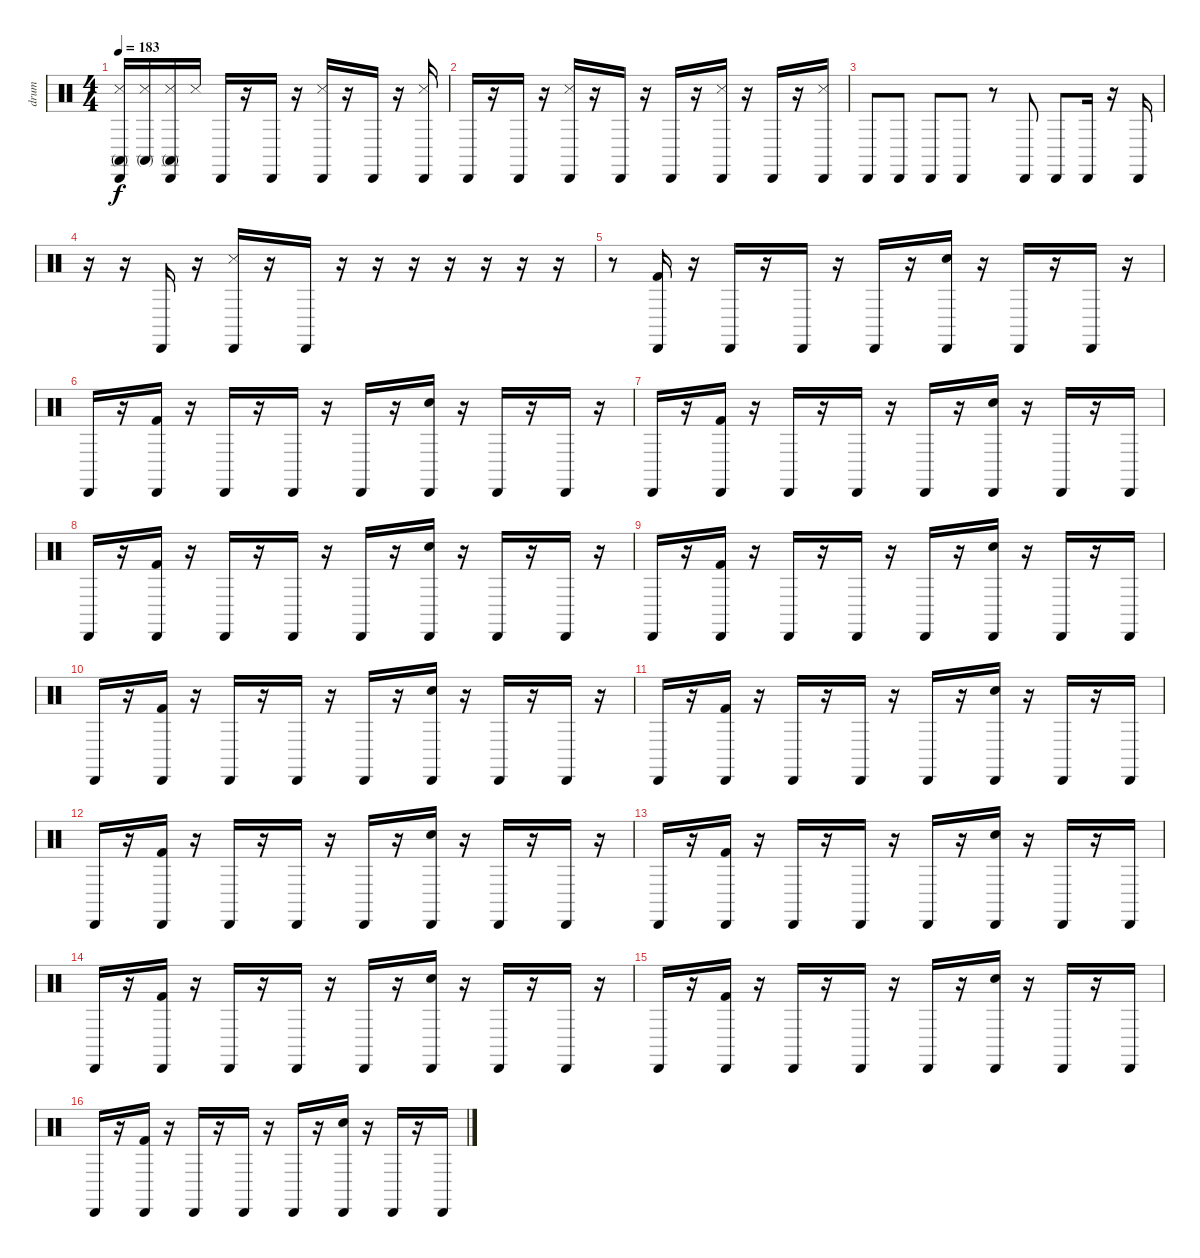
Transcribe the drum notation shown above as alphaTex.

\track ("drum" "drum") {instrument percussion}
\staff {score}
\articulation defaults
\ts (4 4)
\tempo 183
\clef neutral
\ks c
("Cabasa (hit)" "Conga high (mute)" "Snare (side stick) 3").16{dy f} ("Conga high (mute)" "Snare (side stick) 3").16 ("Cabasa (hit)" "Conga high (mute)" "Snare (side stick) 3").16 "Snare (side stick) 3".16 "Cabasa (hit)".16 r.16 "Cabasa (hit)".16 r.16 ("Cabasa (hit)" "Snare (side stick) 3").16 r.16 "Cabasa (hit)".16 r.16 ("Cabasa (hit)" "Snare (side stick) 3").16 |
"Cabasa (hit)".16 r.16 "Cabasa (hit)".16 r.16 ("Cabasa (hit)" "Snare (side stick) 3").16 r.16 "Cabasa (hit)".16 r.16 "Cabasa (hit)".16 r.16 ("Cabasa (hit)" "Snare (side stick) 3").16 r.16 "Cabasa (hit)".16 r.16 ("Cabasa (hit)" "Snare (side stick) 3").16 |
"Cabasa (hit)".8 "Cabasa (hit)".8 "Cabasa (hit)".8 "Cabasa (hit)".8 r.8 "Cabasa (hit)".8 "Cabasa (hit)".8 "Cabasa (hit)".16 r.16 "Cabasa (hit)".16 |
r.16 r.16 "Cabasa (hit)".16 r.16 ("Cabasa (hit)" "Snare (side stick) 3").16 r.16 "Cabasa (hit)".16 r.16 r.16 r.16 r.16 r.16 r.16 r.16 |
r.8 ("Cabasa (hit)" "Kick (hit) 2").16 r.16 "Cabasa (hit)".16 r.16 "Cabasa (hit)".16 r.16 "Cabasa (hit)".16 r.16 ("Cabasa (hit)" "Snare (hit) 2").16 r.16 "Cabasa (hit)".16 r.16 "Cabasa (hit)".16 r.16 |
"Cabasa (hit)".16 r.16 ("Cabasa (hit)" "Kick (hit) 2").16 r.16 "Cabasa (hit)".16 r.16 "Cabasa (hit)".16 r.16 "Cabasa (hit)".16 r.16 ("Cabasa (hit)" "Snare (hit) 2").16 r.16 "Cabasa (hit)".16 r.16 "Cabasa (hit)".16 r.16 |
"Cabasa (hit)".16 r.16 ("Cabasa (hit)" "Kick (hit) 2").16 r.16 "Cabasa (hit)".16 r.16 "Cabasa (hit)".16 r.16 "Cabasa (hit)".16 r.16 ("Cabasa (hit)" "Snare (hit) 2").16 r.16 "Cabasa (hit)".16 r.16 "Cabasa (hit)".16 |
"Cabasa (hit)".16 r.16 ("Cabasa (hit)" "Kick (hit) 2").16 r.16 "Cabasa (hit)".16 r.16 "Cabasa (hit)".16 r.16 "Cabasa (hit)".16 r.16 ("Cabasa (hit)" "Snare (hit) 2").16 r.16 "Cabasa (hit)".16 r.16 "Cabasa (hit)".16 r.16 |
"Cabasa (hit)".16 r.16 ("Cabasa (hit)" "Kick (hit) 2").16 r.16 "Cabasa (hit)".16 r.16 "Cabasa (hit)".16 r.16 "Cabasa (hit)".16 r.16 ("Cabasa (hit)" "Snare (hit) 2").16 r.16 "Cabasa (hit)".16 r.16 "Cabasa (hit)".16 |
"Cabasa (hit)".16 r.16 ("Cabasa (hit)" "Kick (hit) 2").16 r.16 "Cabasa (hit)".16 r.16 "Cabasa (hit)".16 r.16 "Cabasa (hit)".16 r.16 ("Cabasa (hit)" "Snare (hit) 2").16 r.16 "Cabasa (hit)".16 r.16 "Cabasa (hit)".16 r.16 |
"Cabasa (hit)".16 r.16 ("Cabasa (hit)" "Kick (hit) 2").16 r.16 "Cabasa (hit)".16 r.16 "Cabasa (hit)".16 r.16 "Cabasa (hit)".16 r.16 ("Cabasa (hit)" "Snare (hit) 2").16 r.16 "Cabasa (hit)".16 r.16 "Cabasa (hit)".16 |
"Cabasa (hit)".16 r.16 ("Cabasa (hit)" "Kick (hit) 2").16 r.16 "Cabasa (hit)".16 r.16 "Cabasa (hit)".16 r.16 "Cabasa (hit)".16 r.16 ("Cabasa (hit)" "Snare (hit) 2").16 r.16 "Cabasa (hit)".16 r.16 "Cabasa (hit)".16 r.16 |
"Cabasa (hit)".16 r.16 ("Cabasa (hit)" "Kick (hit) 2").16 r.16 "Cabasa (hit)".16 r.16 "Cabasa (hit)".16 r.16 "Cabasa (hit)".16 r.16 ("Cabasa (hit)" "Snare (hit) 2").16 r.16 "Cabasa (hit)".16 r.16 "Cabasa (hit)".16 |
"Cabasa (hit)".16 r.16 ("Cabasa (hit)" "Kick (hit) 2").16 r.16 "Cabasa (hit)".16 r.16 "Cabasa (hit)".16 r.16 "Cabasa (hit)".16 r.16 ("Cabasa (hit)" "Snare (hit) 2").16 r.16 "Cabasa (hit)".16 r.16 "Cabasa (hit)".16 r.16 |
"Cabasa (hit)".16 r.16 ("Cabasa (hit)" "Kick (hit) 2").16 r.16 "Cabasa (hit)".16 r.16 "Cabasa (hit)".16 r.16 "Cabasa (hit)".16 r.16 ("Cabasa (hit)" "Snare (hit) 2").16 r.16 "Cabasa (hit)".16 r.16 "Cabasa (hit)".16 |
"Cabasa (hit)".16 r.16 ("Cabasa (hit)" "Kick (hit) 2").16 r.16 "Cabasa (hit)".16 r.16 "Cabasa (hit)".16 r.16 "Cabasa (hit)".16 r.16 ("Cabasa (hit)" "Snare (hit) 2").16 r.16 "Cabasa (hit)".16 r.16 "Cabasa (hit)".16
